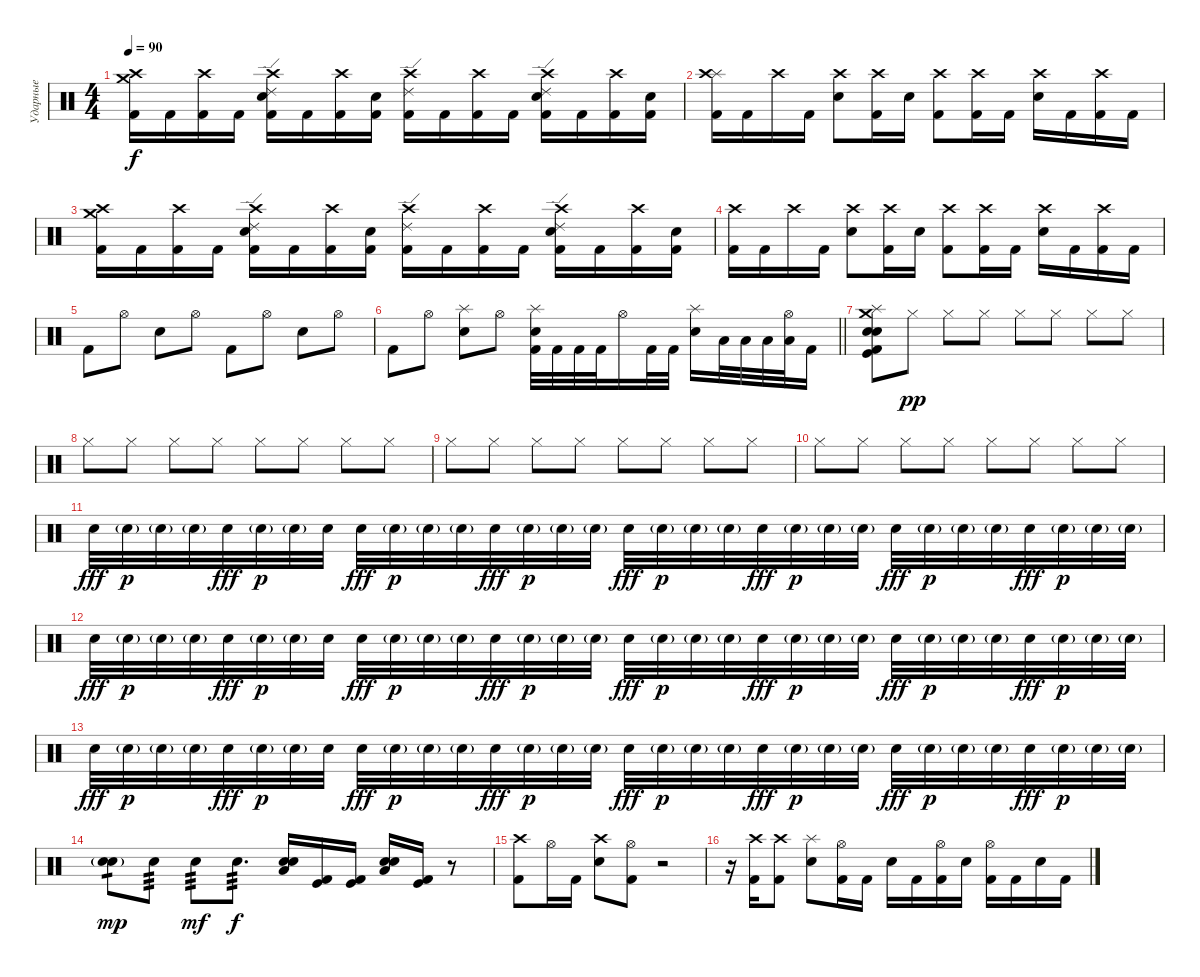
\track ("Ударные" "Ударные") {instrument percussion}
\staff {score}
\articulation defaults
\ts (4 4)
\tempo 90
\clef neutral
\ks c
("Kick (hit) 2" "Crash medium (hit)" "Crash high (hit)").16{dy f} "Kick (hit) 2".16 ("Kick (hit) 2" "Crash high (hit)").16 "Kick (hit) 2".16 ("Kick (hit) 2" "Electric Snare (hit)" "Ride (edge) 2" "Crash high (hit)").16 "Kick (hit) 2".16 ("Kick (hit) 2" "Crash high (hit)").16 ("Kick (hit) 2" "Electric Snare (hit)").16 ("Kick (hit) 2" "Ride (edge) 2" "Crash high (hit)").16 "Kick (hit) 2".16 ("Kick (hit) 2" "Crash high (hit)").16 "Kick (hit) 2".16 ("Kick (hit) 2" "Electric Snare (hit)" "Ride (edge) 2" "Crash high (hit)").16 "Kick (hit) 2".16 ("Kick (hit) 2" "Crash high (hit)").16 ("Kick (hit) 2" "Electric Snare (hit)").16 |
("Kick (hit) 2" "Splash (hit)" "Crash high (hit)").16 "Kick (hit) 2".16 "Crash high (hit)".16 "Kick (hit) 2".16 ("Electric Snare (hit)" "Crash high (hit)").8 ("Kick (hit) 2" "Crash high (hit)").16 "Electric Snare (hit)".16 ("Kick (hit) 2" "Crash high (hit)").8 ("Kick (hit) 2" "Crash high (hit)").16 "Kick (hit) 2".16 ("Electric Snare (hit)" "Crash high (hit)").16 "Kick (hit) 2".16 ("Kick (hit) 2" "Crash high (hit)").16 "Kick (hit) 2".16 |
("Kick (hit) 2" "Crash medium (hit)" "Crash high (hit)").16 "Kick (hit) 2".16 ("Kick (hit) 2" "Crash high (hit)").16 "Kick (hit) 2".16 ("Kick (hit) 2" "Electric Snare (hit)" "Ride (edge) 2" "Crash high (hit)").16 "Kick (hit) 2".16 ("Kick (hit) 2" "Crash high (hit)").16 ("Kick (hit) 2" "Electric Snare (hit)").16 ("Kick (hit) 2" "Ride (edge) 2" "Crash high (hit)").16 "Kick (hit) 2".16 ("Kick (hit) 2" "Crash high (hit)").16 "Kick (hit) 2".16 ("Kick (hit) 2" "Electric Snare (hit)" "Ride (edge) 2" "Crash high (hit)").16 "Kick (hit) 2".16 ("Kick (hit) 2" "Crash high (hit)").16 ("Kick (hit) 2" "Electric Snare (hit)").16 |
("Kick (hit) 2" "Crash high (hit)").16 "Kick (hit) 2".16 "Crash high (hit)".16 "Kick (hit) 2".16 ("Electric Snare (hit)" "Crash high (hit)").8 ("Kick (hit) 2" "Crash high (hit)").16 "Electric Snare (hit)".16 ("Kick (hit) 2" "Crash high (hit)").8 ("Kick (hit) 2" "Crash high (hit)").16 "Kick (hit) 2".16 ("Electric Snare (hit)" "Crash high (hit)").16 "Kick (hit) 2".16 ("Kick (hit) 2" "Crash high (hit)").16 "Kick (hit) 2".16 |
"Kick (hit) 2".8 "Hi-Hat (open)".8 "Electric Snare (hit)".8 "Hi-Hat (open)".8 "Kick (hit) 2".8 "Hi-Hat (open)".8 "Electric Snare (hit)".8 "Hi-Hat (open)".8 |
\barLineRight lightlight "Kick (hit) 2".8 "Hi-Hat (open)".8
("Electric Snare (hit)" "Splash (hit)").8 "Hi-Hat (open)".8 ("Kick (hit) 2" "Electric Snare (hit)" "Splash (hit)").32 "Kick (hit) 2".32 "Kick (hit) 2".32 "Kick (hit) 2".32 "Hi-Hat (open)".16 "Kick (hit) 2".32 "Kick (hit) 2".32 ("Electric Snare (hit)" "Splash (hit)").16 "Low Floor Tom (hit)".32 "Low Floor Tom (hit)".32 "Low Floor Tom (hit)".32 ("Low Floor Tom (hit)" "Hi-Hat (open)").32 "Kick (hit) 2".16 |
("Kick (hit)" "Kick (hit) 2" "Electric Snare (hit)" "Snare (hit) 2" "Crash medium (hit)" "Splash (hit)").8 "Hi-Hat (closed)".8{dy pp} "Hi-Hat (closed)".8 "Hi-Hat (closed)".8 "Hi-Hat (closed)".8 "Hi-Hat (closed)".8 "Hi-Hat (closed)".8 "Hi-Hat (closed)".8 |
"Hi-Hat (closed)".8 "Hi-Hat (closed)".8 "Hi-Hat (closed)".8 "Hi-Hat (closed)".8 "Hi-Hat (closed)".8 "Hi-Hat (closed)".8 "Hi-Hat (closed)".8 "Hi-Hat (closed)".8 |
"Hi-Hat (closed)".8 "Hi-Hat (closed)".8 "Hi-Hat (closed)".8 "Hi-Hat (closed)".8 "Hi-Hat (closed)".8 "Hi-Hat (closed)".8 "Hi-Hat (closed)".8 "Hi-Hat (closed)".8 |
"Hi-Hat (closed)".8 "Hi-Hat (closed)".8 "Hi-Hat (closed)".8 "Hi-Hat (closed)".8 "Hi-Hat (closed)".8 "Hi-Hat (closed)".8 "Hi-Hat (closed)".8 "Hi-Hat (closed)".8 |
"Electric Snare (hit)".32{dy fff} "Electric Snare (hit)"{g}.32{dy p} "Electric Snare (hit)"{g}.32 "Electric Snare (hit)"{g}.32 "Electric Snare (hit)".32{dy fff} "Electric Snare (hit)"{g}.32{dy p} "Electric Snare (hit)"{g}.32 "Electric Snare (hit)".32 "Electric Snare (hit)".32{dy fff} "Electric Snare (hit)"{g}.32{dy p} "Electric Snare (hit)"{g}.32 "Electric Snare (hit)"{g}.32 "Electric Snare (hit)".32{dy fff} "Electric Snare (hit)"{g}.32{dy p} "Electric Snare (hit)"{g}.32 "Electric Snare (hit)"{g}.32 "Electric Snare (hit)".32{dy fff} "Electric Snare (hit)"{g}.32{dy p} "Electric Snare (hit)"{g}.32 "Electric Snare (hit)"{g}.32 "Electric Snare (hit)".32{dy fff} "Electric Snare (hit)"{g}.32{dy p} "Electric Snare (hit)"{g}.32 "Electric Snare (hit)"{g}.32 "Electric Snare (hit)".32{dy fff} "Electric Snare (hit)"{g}.32{dy p} "Electric Snare (hit)"{g}.32 "Electric Snare (hit)"{g}.32 "Electric Snare (hit)".32{dy fff} "Electric Snare (hit)"{g}.32{dy p} "Electric Snare (hit)"{g}.32 "Electric Snare (hit)"{g}.32 |
"Electric Snare (hit)".32{dy fff} "Electric Snare (hit)"{g}.32{dy p} "Electric Snare (hit)"{g}.32 "Electric Snare (hit)"{g}.32 "Electric Snare (hit)".32{dy fff} "Electric Snare (hit)"{g}.32{dy p} "Electric Snare (hit)"{g}.32 "Electric Snare (hit)".32 "Electric Snare (hit)".32{dy fff} "Electric Snare (hit)"{g}.32{dy p} "Electric Snare (hit)"{g}.32 "Electric Snare (hit)"{g}.32 "Electric Snare (hit)".32{dy fff} "Electric Snare (hit)"{g}.32{dy p} "Electric Snare (hit)"{g}.32 "Electric Snare (hit)"{g}.32 "Electric Snare (hit)".32{dy fff} "Electric Snare (hit)"{g}.32{dy p} "Electric Snare (hit)"{g}.32 "Electric Snare (hit)"{g}.32 "Electric Snare (hit)".32{dy fff} "Electric Snare (hit)"{g}.32{dy p} "Electric Snare (hit)"{g}.32 "Electric Snare (hit)"{g}.32 "Electric Snare (hit)".32{dy fff} "Electric Snare (hit)"{g}.32{dy p} "Electric Snare (hit)"{g}.32 "Electric Snare (hit)"{g}.32 "Electric Snare (hit)".32{dy fff} "Electric Snare (hit)"{g}.32{dy p} "Electric Snare (hit)"{g}.32 "Electric Snare (hit)"{g}.32 |
"Electric Snare (hit)".32{dy fff} "Electric Snare (hit)"{g}.32{dy p} "Electric Snare (hit)"{g}.32 "Electric Snare (hit)"{g}.32 "Electric Snare (hit)".32{dy fff} "Electric Snare (hit)"{g}.32{dy p} "Electric Snare (hit)"{g}.32 "Electric Snare (hit)".32 "Electric Snare (hit)".32{dy fff} "Electric Snare (hit)"{g}.32{dy p} "Electric Snare (hit)"{g}.32 "Electric Snare (hit)"{g}.32 "Electric Snare (hit)".32{dy fff} "Electric Snare (hit)"{g}.32{dy p} "Electric Snare (hit)"{g}.32 "Electric Snare (hit)"{g}.32 "Electric Snare (hit)".32{dy fff} "Electric Snare (hit)"{g}.32{dy p} "Electric Snare (hit)"{g}.32 "Electric Snare (hit)"{g}.32 "Electric Snare (hit)".32{dy fff} "Electric Snare (hit)"{g}.32{dy p} "Electric Snare (hit)"{g}.32 "Electric Snare (hit)"{g}.32 "Electric Snare (hit)".32{dy fff} "Electric Snare (hit)"{g}.32{dy p} "Electric Snare (hit)"{g}.32 "Electric Snare (hit)"{g}.32 "Electric Snare (hit)".32{dy fff} "Electric Snare (hit)"{g}.32{dy p} "Electric Snare (hit)"{g}.32 "Electric Snare (hit)"{g}.32 |
("Electric Snare (hit)"{g} "Electric Snare (hit)").8{tp 1 dy mp} "Electric Snare (hit)".8{tp 3} "Electric Snare (hit)".8{tp 3 dy mf} "Electric Snare (hit)".8{d tp 3 dy f} ("Snare (hit) 2" "Low Floor Tom (hit)" "Electric Snare (hit)").16 ("Kick (hit) 2" "Kick (hit)").16 ("Kick (hit) 2" "Kick (hit)").16 ("Snare (hit) 2" "Low Floor Tom (hit)" "Electric Snare (hit)").16 ("Kick (hit) 2" "Kick (hit)").16 r.8 |
("Kick (hit) 2" "Crash high (hit)").8 "Hi-Hat (open)".16 "Kick (hit) 2".16 ("Electric Snare (hit)" "Crash high (hit)").8 ("Kick (hit) 2" "Hi-Hat (open)").8 r.2 |
r.16 ("Kick (hit) 2" "Crash high (hit)").16 ("Kick (hit) 2" "Crash high (hit)").8 ("Electric Snare (hit)" "Splash (hit)").8 ("Kick (hit) 2" "Hi-Hat (open)").16 "Kick (hit) 2".16 "Electric Snare (hit)".16 "Kick (hit) 2".16 ("Kick (hit) 2" "Hi-Hat (open)").16 "Electric Snare (hit)".16 ("Kick (hit) 2" "Hi-Hat (open)").16 "Kick (hit) 2".16 "Electric Snare (hit)".16 "Kick (hit) 2".16
